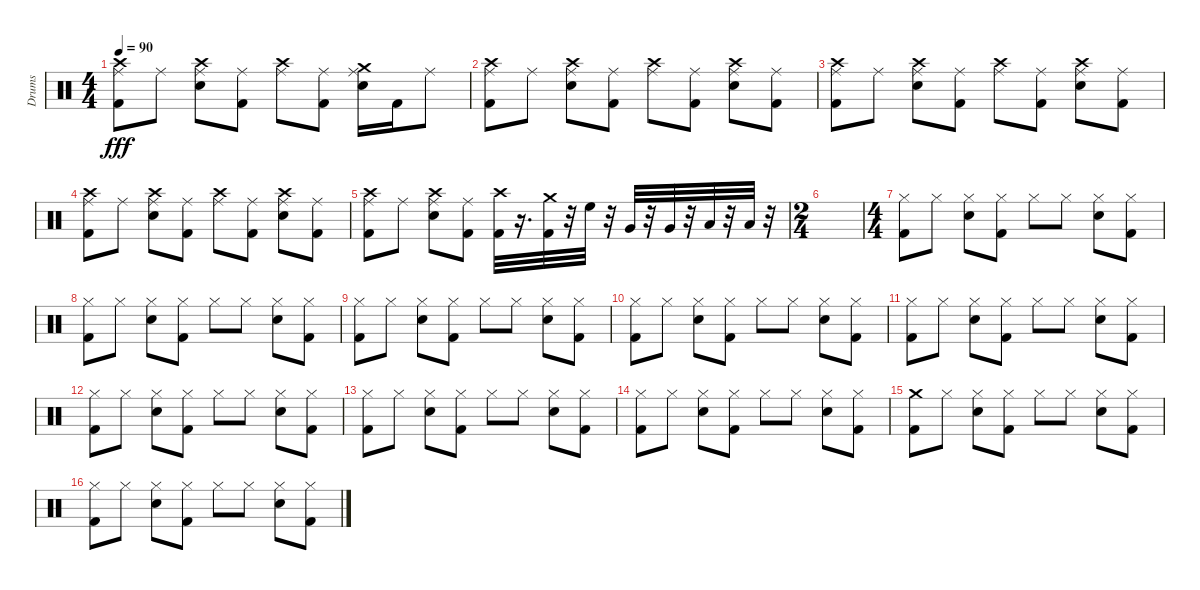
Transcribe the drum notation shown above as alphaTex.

\track ("Drums" "Drums") {instrument percussion}
\staff {score}
\articulation defaults
\ts (4 4)
\tempo 90
\clef neutral
\ks c
("Kick (hit) 2" "Crash high (hit)" "Ride (middle)").8{dy fff} "Ride (middle)".8 ("Snare (hit) 2" "Crash high (hit)" "Ride (middle)").8 ("Kick (hit) 2" "Ride (middle)").8 ("Crash high (hit)" "Ride (middle)").8 ("Kick (hit) 2" "Ride (middle)").8 ("Snare (hit) 2" "Ride (middle)" "Crash medium (hit)").16 "Kick (hit) 2".16 "Ride (middle)".8 |
("Kick (hit) 2" "Crash high (hit)" "Ride (middle)").8 "Ride (middle)".8 ("Snare (hit) 2" "Crash high (hit)" "Ride (middle)").8 ("Kick (hit) 2" "Ride (middle)").8 ("Crash high (hit)" "Ride (middle)").8 ("Kick (hit) 2" "Ride (middle)").8 ("Snare (hit) 2" "Crash high (hit)" "Ride (middle)").8 ("Kick (hit) 2" "Ride (middle)").8 |
("Kick (hit) 2" "Crash high (hit)" "Ride (middle)").8 "Ride (middle)".8 ("Snare (hit) 2" "Crash high (hit)" "Ride (middle)").8 ("Kick (hit) 2" "Ride (middle)").8 ("Crash high (hit)" "Ride (middle)").8 ("Kick (hit) 2" "Ride (middle)").8 ("Snare (hit) 2" "Crash high (hit)" "Ride (middle)").8 ("Kick (hit) 2" "Ride (middle)").8 |
("Kick (hit) 2" "Crash high (hit)" "Ride (middle)").8 "Ride (middle)".8 ("Snare (hit) 2" "Crash high (hit)" "Ride (middle)").8 ("Kick (hit) 2" "Ride (middle)").8 ("Crash high (hit)" "Ride (middle)").8 ("Kick (hit) 2" "Ride (middle)").8 ("Snare (hit) 2" "Crash high (hit)" "Ride (middle)").8 ("Kick (hit) 2" "Ride (middle)").8 |
("Kick (hit) 2" "Crash high (hit)" "Ride (middle)").8 "Ride (middle)".8 ("Snare (hit) 2" "Crash high (hit)" "Ride (middle)").8 ("Kick (hit) 2" "Ride (middle)").8 ("Kick (hit) 2" "Crash high (hit)").32 r.16{d} ("Crash medium (hit)" "Kick (hit) 2").32 r.32 "High Floor Tom (hit)".32 r.32 "Very Low Tom (hit)".32 r.32 "Very Low Tom (hit)".32 r.32 "Low Floor Tom (hit)".32 r.32 "Low Floor Tom (hit)".32 r.32 |
\ts (2 4)
|
\ts (4 4)
("Kick (hit) 2" "Hi-Hat (closed)").8 "Hi-Hat (closed)".8 ("Snare (hit) 2" "Hi-Hat (closed)").8 ("Kick (hit) 2" "Hi-Hat (closed)").8 "Hi-Hat (closed)".8 "Hi-Hat (closed)".8 ("Snare (hit) 2" "Hi-Hat (closed)").8 ("Kick (hit) 2" "Hi-Hat (closed)").8 |
("Kick (hit) 2" "Hi-Hat (closed)").8 "Hi-Hat (closed)".8 ("Snare (hit) 2" "Hi-Hat (closed)").8 ("Kick (hit) 2" "Hi-Hat (closed)").8 "Hi-Hat (closed)".8 "Hi-Hat (closed)".8 ("Snare (hit) 2" "Hi-Hat (closed)").8 ("Kick (hit) 2" "Hi-Hat (closed)").8 |
("Kick (hit) 2" "Hi-Hat (closed)").8 "Hi-Hat (closed)".8 ("Snare (hit) 2" "Hi-Hat (closed)").8 ("Kick (hit) 2" "Hi-Hat (closed)").8 "Hi-Hat (closed)".8 "Hi-Hat (closed)".8 ("Snare (hit) 2" "Hi-Hat (closed)").8 ("Kick (hit) 2" "Hi-Hat (closed)").8 |
("Kick (hit) 2" "Hi-Hat (closed)").8 "Hi-Hat (closed)".8 ("Snare (hit) 2" "Hi-Hat (closed)").8 ("Kick (hit) 2" "Hi-Hat (closed)").8 "Hi-Hat (closed)".8 "Hi-Hat (closed)".8 ("Snare (hit) 2" "Hi-Hat (closed)").8 ("Kick (hit) 2" "Hi-Hat (closed)").8 |
("Kick (hit) 2" "Hi-Hat (closed)").8 "Hi-Hat (closed)".8 ("Snare (hit) 2" "Hi-Hat (closed)").8 ("Kick (hit) 2" "Hi-Hat (closed)").8 "Hi-Hat (closed)".8 "Hi-Hat (closed)".8 ("Snare (hit) 2" "Hi-Hat (closed)").8 ("Kick (hit) 2" "Hi-Hat (closed)").8 |
("Kick (hit) 2" "Hi-Hat (closed)").8 "Hi-Hat (closed)".8 ("Snare (hit) 2" "Hi-Hat (closed)").8 ("Kick (hit) 2" "Hi-Hat (closed)").8 "Hi-Hat (closed)".8 "Hi-Hat (closed)".8 ("Snare (hit) 2" "Hi-Hat (closed)").8 ("Kick (hit) 2" "Hi-Hat (closed)").8 |
("Kick (hit) 2" "Hi-Hat (closed)").8 "Hi-Hat (closed)".8 ("Snare (hit) 2" "Hi-Hat (closed)").8 ("Kick (hit) 2" "Hi-Hat (closed)").8 "Hi-Hat (closed)".8 "Hi-Hat (closed)".8 ("Snare (hit) 2" "Hi-Hat (closed)").8 ("Kick (hit) 2" "Hi-Hat (closed)").8 |
("Kick (hit) 2" "Hi-Hat (closed)").8 "Hi-Hat (closed)".8 ("Snare (hit) 2" "Hi-Hat (closed)").8 ("Kick (hit) 2" "Hi-Hat (closed)").8 "Hi-Hat (closed)".8 "Hi-Hat (closed)".8 ("Snare (hit) 2" "Hi-Hat (closed)").8 ("Kick (hit) 2" "Hi-Hat (closed)").8 |
("Kick (hit) 2" "Crash medium (hit)").8 "Hi-Hat (closed)".8 ("Snare (hit) 2" "Hi-Hat (closed)").8 ("Kick (hit) 2" "Hi-Hat (closed)").8 "Hi-Hat (closed)".8 "Hi-Hat (closed)".8 ("Snare (hit) 2" "Hi-Hat (closed)").8 ("Kick (hit) 2" "Hi-Hat (closed)").8 |
("Kick (hit) 2" "Hi-Hat (closed)").8 "Hi-Hat (closed)".8 ("Snare (hit) 2" "Hi-Hat (closed)").8 ("Kick (hit) 2" "Hi-Hat (closed)").8 "Hi-Hat (closed)".8 "Hi-Hat (closed)".8 ("Snare (hit) 2" "Hi-Hat (closed)").8 ("Kick (hit) 2" "Hi-Hat (closed)").8
